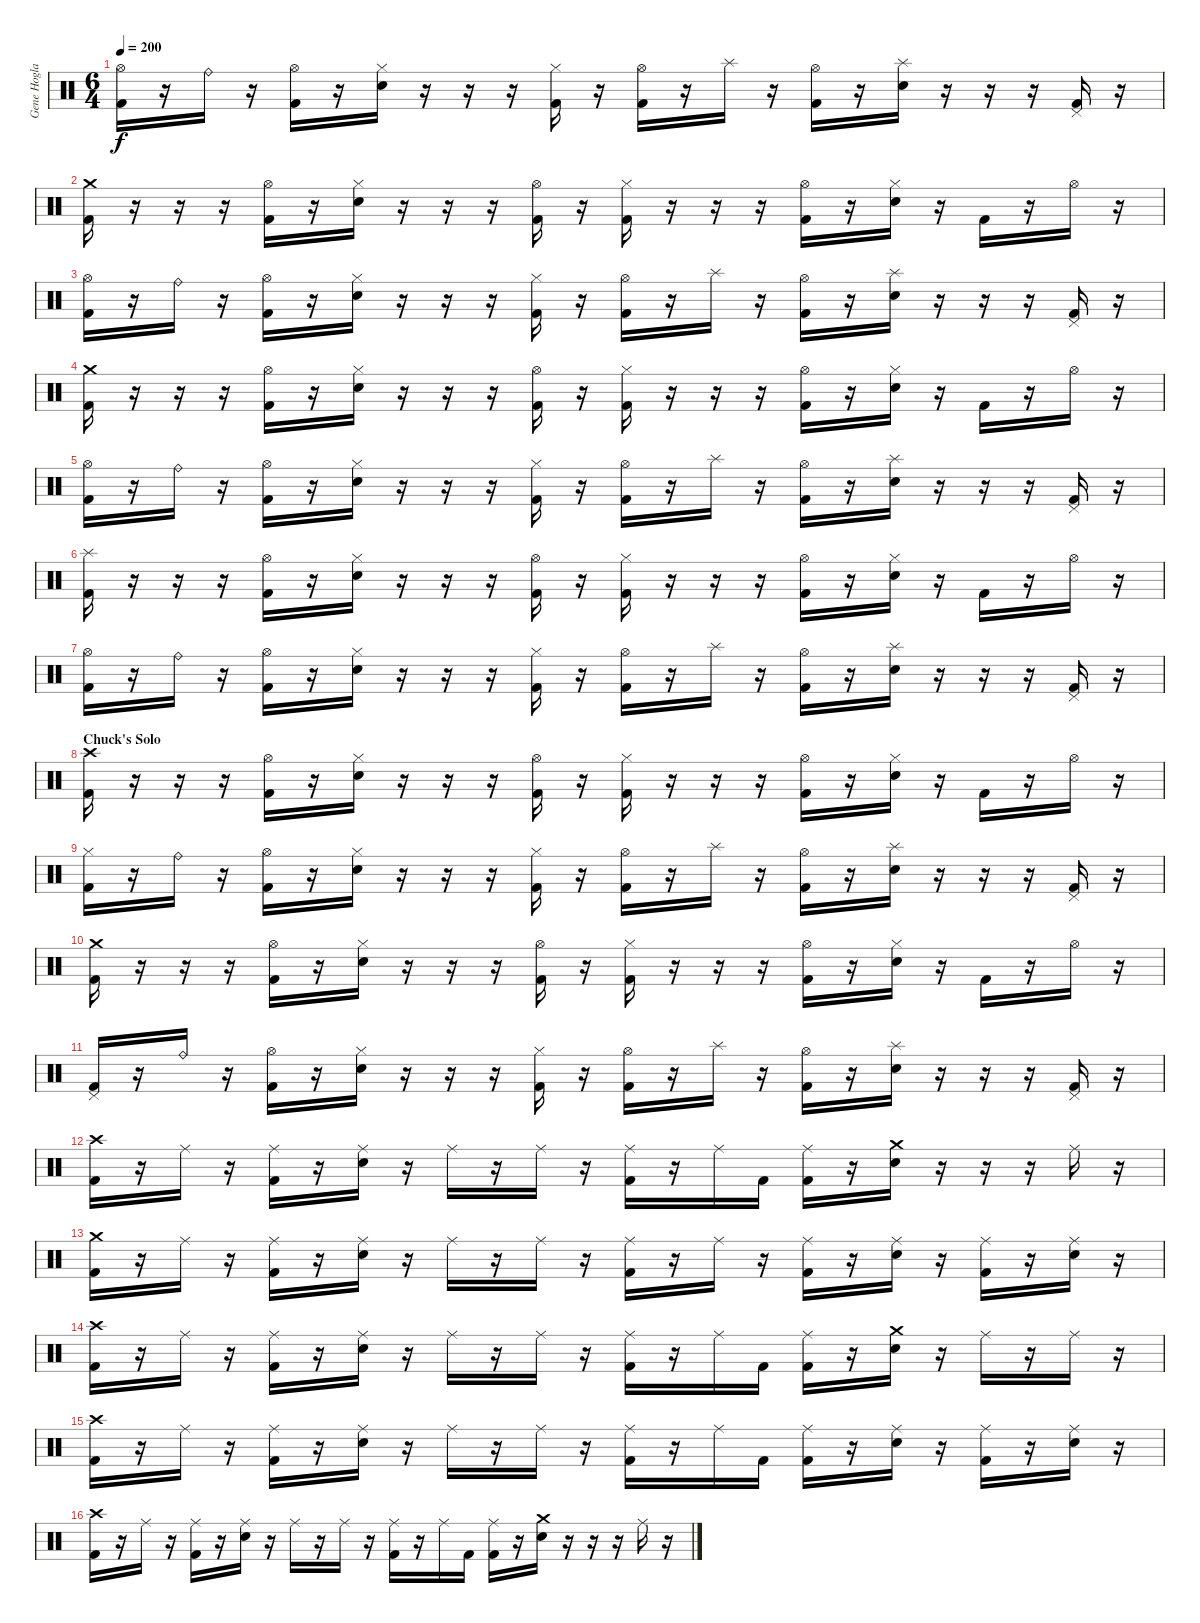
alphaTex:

\track ("Gene Hoglan" "Gene Hogla") {instrument percussion}
\staff {score}
\articulation defaults
\ts (6 4)
\tempo 200
\clef neutral
\ks c
("Hi-Hat (open)" "Kick (hit) 2").16{dy f} r.16 "Ride (bell)".16 r.16 ("Hi-Hat (open)" "Kick (hit) 2").16 r.16 ("Hi-Hat (closed)" "Electric Snare (hit)").16 r.16 r.16 r.16 ("Hi-Hat (closed)" "Kick (hit) 2").16 r.16 ("Hi-Hat (open)" "Kick (hit) 2").16 r.16 "Splash (hit)".16 r.16 ("Hi-Hat (open)" "Kick (hit) 2").16 r.16 ("Splash (hit)" "Electric Snare (hit)").16 r.16 r.16 r.16 ("Pedal Hi-Hat (hit)" "Kick (hit) 2").16 r.16 |
("Crash medium (hit)" "Kick (hit) 2").16 r.16 r.16 r.16 ("Hi-Hat (open)" "Kick (hit) 2").16 r.16 ("Hi-Hat (closed)" "Electric Snare (hit)").16 r.16 r.16 r.16 ("Hi-Hat (open)" "Kick (hit) 2").16 r.16 ("Hi-Hat (closed)" "Kick (hit) 2").16 r.16 r.16 r.16 ("Hi-Hat (open)" "Kick (hit) 2").16 r.16 ("Hi-Hat (closed)" "Electric Snare (hit)").16 r.16 "Kick (hit) 2".16 r.16 "Hi-Hat (open)".16 r.16 |
("Hi-Hat (open)" "Kick (hit) 2").16 r.16 "Ride (bell)".16 r.16 ("Hi-Hat (open)" "Kick (hit) 2").16 r.16 ("Hi-Hat (closed)" "Electric Snare (hit)").16 r.16 r.16 r.16 ("Hi-Hat (closed)" "Kick (hit) 2").16 r.16 ("Hi-Hat (open)" "Kick (hit) 2").16 r.16 "Splash (hit)".16 r.16 ("Hi-Hat (open)" "Kick (hit) 2").16 r.16 ("Splash (hit)" "Electric Snare (hit)").16 r.16 r.16 r.16 ("Pedal Hi-Hat (hit)" "Kick (hit) 2").16 r.16 |
("Crash medium (hit)" "Kick (hit) 2").16 r.16 r.16 r.16 ("Hi-Hat (open)" "Kick (hit) 2").16 r.16 ("Hi-Hat (closed)" "Electric Snare (hit)").16 r.16 r.16 r.16 ("Hi-Hat (open)" "Kick (hit) 2").16 r.16 ("Hi-Hat (closed)" "Kick (hit) 2").16 r.16 r.16 r.16 ("Hi-Hat (open)" "Kick (hit) 2").16 r.16 ("Hi-Hat (closed)" "Electric Snare (hit)").16 r.16 "Kick (hit) 2".16 r.16 "Hi-Hat (open)".16 r.16 |
("Hi-Hat (open)" "Kick (hit) 2").16 r.16 "Ride (bell)".16 r.16 ("Hi-Hat (open)" "Kick (hit) 2").16 r.16 ("Hi-Hat (closed)" "Electric Snare (hit)").16 r.16 r.16 r.16 ("Hi-Hat (closed)" "Kick (hit) 2").16 r.16 ("Hi-Hat (open)" "Kick (hit) 2").16 r.16 "Splash (hit)".16 r.16 ("Hi-Hat (open)" "Kick (hit) 2").16 r.16 ("Splash (hit)" "Electric Snare (hit)").16 r.16 r.16 r.16 ("Pedal Hi-Hat (hit)" "Kick (hit) 2").16 r.16 |
("Splash (hit)" "Kick (hit) 2").16 r.16 r.16 r.16 ("Hi-Hat (open)" "Kick (hit) 2").16 r.16 ("Hi-Hat (closed)" "Electric Snare (hit)").16 r.16 r.16 r.16 ("Hi-Hat (open)" "Kick (hit) 2").16 r.16 ("Hi-Hat (closed)" "Kick (hit) 2").16 r.16 r.16 r.16 ("Hi-Hat (open)" "Kick (hit) 2").16 r.16 ("Hi-Hat (closed)" "Electric Snare (hit)").16 r.16 "Kick (hit) 2".16 r.16 "Hi-Hat (open)".16 r.16 |
("Hi-Hat (open)" "Kick (hit) 2").16 r.16 "Ride (bell)".16 r.16 ("Hi-Hat (open)" "Kick (hit) 2").16 r.16 ("Hi-Hat (closed)" "Electric Snare (hit)").16 r.16 r.16 r.16 ("Hi-Hat (closed)" "Kick (hit) 2").16 r.16 ("Hi-Hat (open)" "Kick (hit) 2").16 r.16 "Splash (hit)".16 r.16 ("Hi-Hat (open)" "Kick (hit) 2").16 r.16 ("Splash (hit)" "Electric Snare (hit)").16 r.16 r.16 r.16 ("Pedal Hi-Hat (hit)" "Kick (hit) 2").16 r.16 |
\section ("" "Chuck's Solo")
("Crash high (hit)" "Kick (hit) 2").16 r.16 r.16 r.16 ("Hi-Hat (open)" "Kick (hit) 2").16 r.16 ("Hi-Hat (closed)" "Electric Snare (hit)").16 r.16 r.16 r.16 ("Hi-Hat (open)" "Kick (hit) 2").16 r.16 ("Hi-Hat (closed)" "Kick (hit) 2").16 r.16 r.16 r.16 ("Hi-Hat (open)" "Kick (hit) 2").16 r.16 ("Hi-Hat (closed)" "Electric Snare (hit)").16 r.16 "Kick (hit) 2".16 r.16 "Hi-Hat (open)".16 r.16 |
("Hi-Hat (closed)" "Kick (hit) 2").16 r.16 "Ride (bell)".16 r.16 ("Hi-Hat (open)" "Kick (hit) 2").16 r.16 ("Hi-Hat (closed)" "Electric Snare (hit)").16 r.16 r.16 r.16 ("Hi-Hat (closed)" "Kick (hit) 2").16 r.16 ("Hi-Hat (open)" "Kick (hit) 2").16 r.16 "Splash (hit)".16 r.16 ("Hi-Hat (open)" "Kick (hit) 2").16 r.16 ("Splash (hit)" "Electric Snare (hit)").16 r.16 r.16 r.16 ("Pedal Hi-Hat (hit)" "Kick (hit) 2").16 r.16 |
("Crash medium (hit)" "Kick (hit) 2").16 r.16 r.16 r.16 ("Hi-Hat (open)" "Kick (hit) 2").16 r.16 ("Hi-Hat (closed)" "Electric Snare (hit)").16 r.16 r.16 r.16 ("Hi-Hat (open)" "Kick (hit) 2").16 r.16 ("Hi-Hat (closed)" "Kick (hit) 2").16 r.16 r.16 r.16 ("Hi-Hat (open)" "Kick (hit) 2").16 r.16 ("Hi-Hat (closed)" "Electric Snare (hit)").16 r.16 "Kick (hit) 2".16 r.16 "Hi-Hat (open)".16 r.16 |
("Pedal Hi-Hat (hit)" "Kick (hit) 2").16 r.16 "Ride (bell)".16 r.16 ("Hi-Hat (open)" "Kick (hit) 2").16 r.16 ("Hi-Hat (closed)" "Electric Snare (hit)").16 r.16 r.16 r.16 ("Hi-Hat (closed)" "Kick (hit) 2").16 r.16 ("Hi-Hat (open)" "Kick (hit) 2").16 r.16 "Splash (hit)".16 r.16 ("Hi-Hat (open)" "Kick (hit) 2").16 r.16 ("Splash (hit)" "Electric Snare (hit)").16 r.16 r.16 r.16 ("Pedal Hi-Hat (hit)" "Kick (hit) 2").16 r.16 |
("Crash high (hit)" "Kick (hit) 2").16 r.16 "Ride (middle)".16 r.16 ("Ride (middle)" "Kick (hit) 2").16 r.16 ("Ride (middle)" "Electric Snare (hit)").16 r.16 "Ride (middle)".16 r.16 "Ride (middle)".16 r.16 ("Ride (middle)" "Kick (hit) 2").16 r.16 "Ride (middle)".16 "Kick (hit) 2".16 ("Ride (middle)" "Kick (hit) 2").16 r.16 ("Crash medium (hit)" "Electric Snare (hit)").16 r.16 r.16 r.16 "Ride (middle)".16 r.16 |
("Crash medium (hit)" "Kick (hit) 2").16 r.16 "Ride (middle)".16 r.16 ("Ride (middle)" "Kick (hit) 2").16 r.16 ("Ride (middle)" "Electric Snare (hit)").16 r.16 "Ride (middle)".16 r.16 "Ride (middle)".16 r.16 ("Ride (middle)" "Kick (hit) 2").16 r.16 "Ride (middle)".16 r.16 ("Ride (middle)" "Kick (hit) 2").16 r.16 ("Ride (middle)" "Electric Snare (hit)").16 r.16 ("Ride (middle)" "Kick (hit) 2").16 r.16 ("Ride (middle)" "Electric Snare (hit)").16 r.16 |
("Crash high (hit)" "Kick (hit) 2").16 r.16 "Ride (middle)".16 r.16 ("Ride (middle)" "Kick (hit) 2").16 r.16 ("Ride (middle)" "Electric Snare (hit)").16 r.16 "Ride (middle)".16 r.16 "Ride (middle)".16 r.16 ("Ride (middle)" "Kick (hit) 2").16 r.16 "Ride (middle)".16 "Kick (hit) 2".16 ("Ride (middle)" "Kick (hit) 2").16 r.16 ("Crash medium (hit)" "Electric Snare (hit)").16 r.16 "Ride (middle)".16 r.16 "Ride (middle)".16 r.16 |
("Crash high (hit)" "Kick (hit) 2").16 r.16 "Ride (middle)".16 r.16 ("Ride (middle)" "Kick (hit) 2").16 r.16 ("Ride (middle)" "Electric Snare (hit)").16 r.16 "Ride (middle)".16 r.16 "Ride (middle)".16 r.16 ("Ride (middle)" "Kick (hit) 2").16 r.16 "Ride (middle)".16 "Kick (hit) 2".16 ("Ride (middle)" "Kick (hit) 2").16 r.16 ("Ride (middle)" "Electric Snare (hit)").16 r.16 ("Ride (middle)" "Kick (hit) 2").16 r.16 ("Ride (middle)" "Electric Snare (hit)").16 r.16 |
("Crash high (hit)" "Kick (hit) 2").16 r.16 "Ride (middle)".16 r.16 ("Ride (middle)" "Kick (hit) 2").16 r.16 ("Ride (middle)" "Electric Snare (hit)").16 r.16 "Ride (middle)".16 r.16 "Ride (middle)".16 r.16 ("Ride (middle)" "Kick (hit) 2").16 r.16 "Ride (middle)".16 "Kick (hit) 2".16 ("Ride (middle)" "Kick (hit) 2").16 r.16 ("Crash medium (hit)" "Electric Snare (hit)").16 r.16 r.16 r.16 "Ride (middle)".16 r.16
